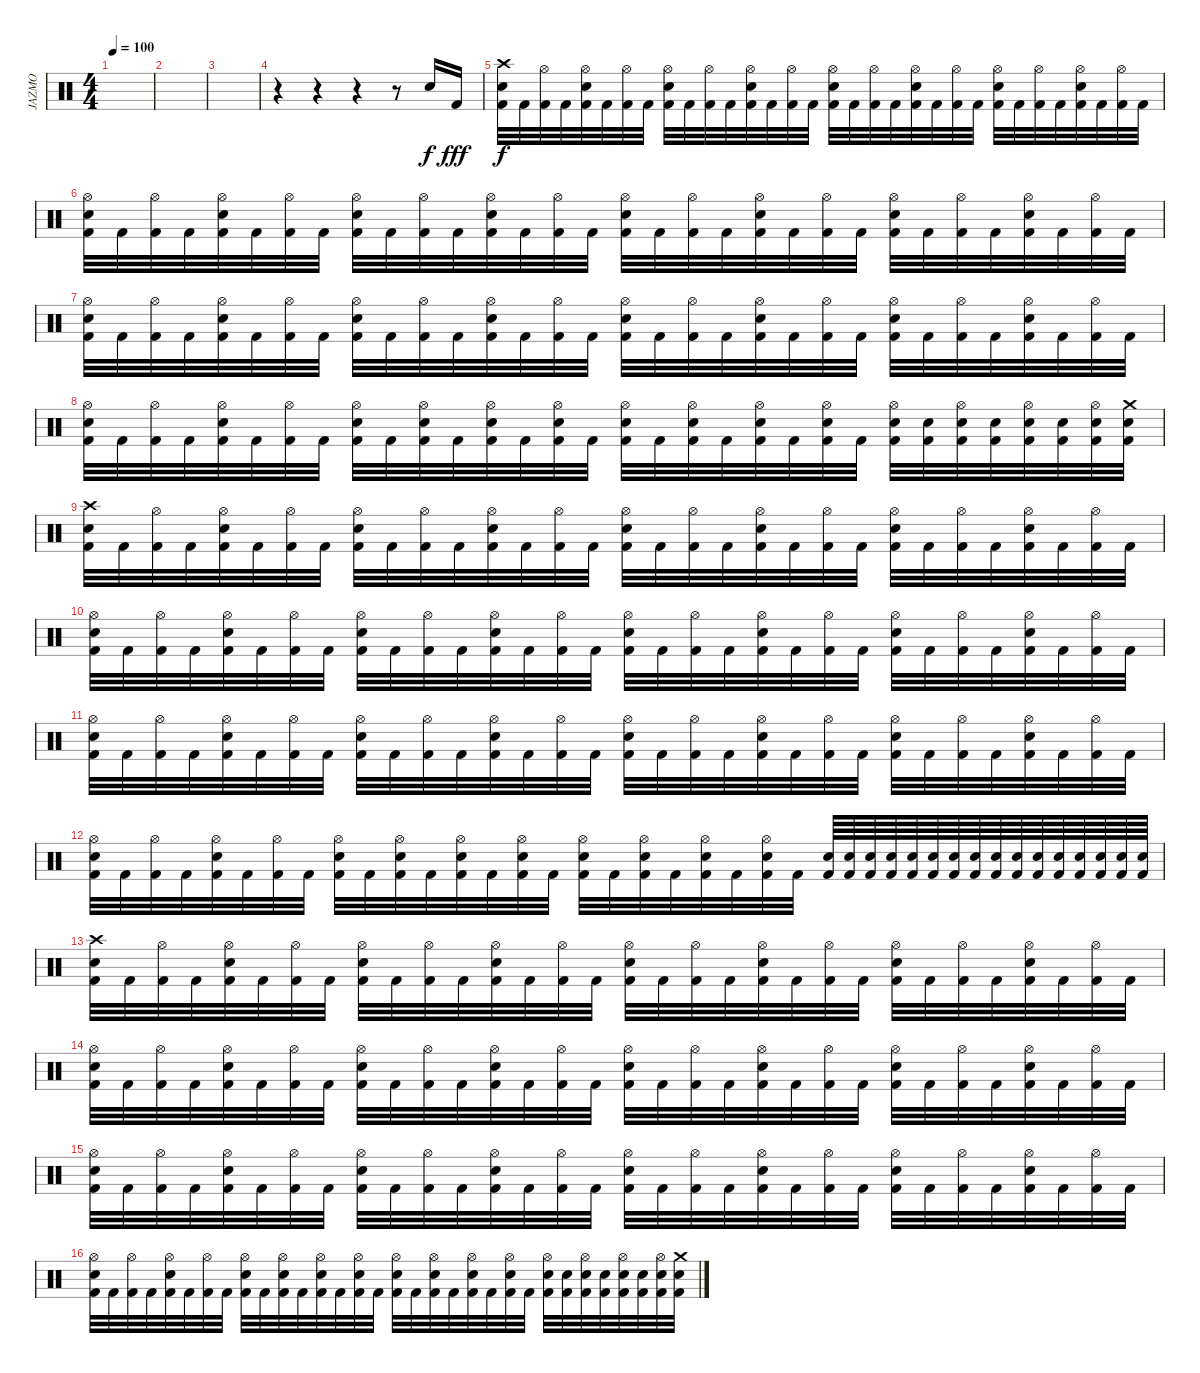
\track ("JAZMO" "JAZMO") {instrument percussion}
\staff {score}
\articulation defaults
\ts (4 4)
\tempo 100
\clef neutral
\ks c
|
|
|
r.4 r.4 r.4 r.8 "Electric Snare (hit)".16 "Kick (hit) 2".16{dy fff} |
("Crash high (hit)" "Electric Snare (hit)" "Kick (hit) 2").32{dy f} "Kick (hit) 2".32 ("Hi-Hat (open)" "Kick (hit) 2").32 "Kick (hit) 2".32 ("Hi-Hat (open)" "Electric Snare (hit)" "Kick (hit) 2").32 "Kick (hit) 2".32 ("Hi-Hat (open)" "Kick (hit) 2").32 "Kick (hit) 2".32 ("Hi-Hat (open)" "Electric Snare (hit)" "Kick (hit) 2").32 "Kick (hit) 2".32 ("Hi-Hat (open)" "Kick (hit) 2").32 "Kick (hit) 2".32 ("Hi-Hat (open)" "Electric Snare (hit)" "Kick (hit) 2").32 "Kick (hit) 2".32 ("Hi-Hat (open)" "Kick (hit) 2").32 "Kick (hit) 2".32 ("Hi-Hat (open)" "Electric Snare (hit)" "Kick (hit) 2").32 "Kick (hit) 2".32 ("Hi-Hat (open)" "Kick (hit) 2").32 "Kick (hit) 2".32 ("Hi-Hat (open)" "Electric Snare (hit)" "Kick (hit) 2").32 "Kick (hit) 2".32 ("Hi-Hat (open)" "Kick (hit) 2").32 "Kick (hit) 2".32 ("Hi-Hat (open)" "Electric Snare (hit)" "Kick (hit) 2").32 "Kick (hit) 2".32 ("Hi-Hat (open)" "Kick (hit) 2").32 "Kick (hit) 2".32 ("Hi-Hat (open)" "Electric Snare (hit)" "Kick (hit) 2").32 "Kick (hit) 2".32 ("Hi-Hat (open)" "Kick (hit) 2").32 "Kick (hit) 2".32 |
("Hi-Hat (open)" "Electric Snare (hit)" "Kick (hit) 2").32 "Kick (hit) 2".32 ("Hi-Hat (open)" "Kick (hit) 2").32 "Kick (hit) 2".32 ("Hi-Hat (open)" "Electric Snare (hit)" "Kick (hit) 2").32 "Kick (hit) 2".32 ("Hi-Hat (open)" "Kick (hit) 2").32 "Kick (hit) 2".32 ("Hi-Hat (open)" "Electric Snare (hit)" "Kick (hit) 2").32 "Kick (hit) 2".32 ("Hi-Hat (open)" "Kick (hit) 2").32 "Kick (hit) 2".32 ("Hi-Hat (open)" "Electric Snare (hit)" "Kick (hit) 2").32 "Kick (hit) 2".32 ("Hi-Hat (open)" "Kick (hit) 2").32 "Kick (hit) 2".32 ("Hi-Hat (open)" "Electric Snare (hit)" "Kick (hit) 2").32 "Kick (hit) 2".32 ("Hi-Hat (open)" "Kick (hit) 2").32 "Kick (hit) 2".32 ("Hi-Hat (open)" "Electric Snare (hit)" "Kick (hit) 2").32 "Kick (hit) 2".32 ("Hi-Hat (open)" "Kick (hit) 2").32 "Kick (hit) 2".32 ("Hi-Hat (open)" "Electric Snare (hit)" "Kick (hit) 2").32 "Kick (hit) 2".32 ("Hi-Hat (open)" "Kick (hit) 2").32 "Kick (hit) 2".32 ("Hi-Hat (open)" "Electric Snare (hit)" "Kick (hit) 2").32 "Kick (hit) 2".32 ("Hi-Hat (open)" "Kick (hit) 2").32 "Kick (hit) 2".32 |
("Hi-Hat (open)" "Electric Snare (hit)" "Kick (hit) 2").32 "Kick (hit) 2".32 ("Hi-Hat (open)" "Kick (hit) 2").32 "Kick (hit) 2".32 ("Hi-Hat (open)" "Electric Snare (hit)" "Kick (hit) 2").32 "Kick (hit) 2".32 ("Hi-Hat (open)" "Kick (hit) 2").32 "Kick (hit) 2".32 ("Hi-Hat (open)" "Electric Snare (hit)" "Kick (hit) 2").32 "Kick (hit) 2".32 ("Hi-Hat (open)" "Kick (hit) 2").32 "Kick (hit) 2".32 ("Hi-Hat (open)" "Electric Snare (hit)" "Kick (hit) 2").32 "Kick (hit) 2".32 ("Hi-Hat (open)" "Kick (hit) 2").32 "Kick (hit) 2".32 ("Hi-Hat (open)" "Electric Snare (hit)" "Kick (hit) 2").32 "Kick (hit) 2".32 ("Hi-Hat (open)" "Kick (hit) 2").32 "Kick (hit) 2".32 ("Hi-Hat (open)" "Electric Snare (hit)" "Kick (hit) 2").32 "Kick (hit) 2".32 ("Hi-Hat (open)" "Kick (hit) 2").32 "Kick (hit) 2".32 ("Hi-Hat (open)" "Electric Snare (hit)" "Kick (hit) 2").32 "Kick (hit) 2".32 ("Hi-Hat (open)" "Kick (hit) 2").32 "Kick (hit) 2".32 ("Hi-Hat (open)" "Electric Snare (hit)" "Kick (hit) 2").32 "Kick (hit) 2".32 ("Hi-Hat (open)" "Kick (hit) 2").32 "Kick (hit) 2".32 |
("Hi-Hat (open)" "Electric Snare (hit)" "Kick (hit) 2").32 "Kick (hit) 2".32 ("Hi-Hat (open)" "Kick (hit) 2").32 "Kick (hit) 2".32 ("Hi-Hat (open)" "Electric Snare (hit)" "Kick (hit) 2").32 "Kick (hit) 2".32 ("Hi-Hat (open)" "Kick (hit) 2").32 "Kick (hit) 2".32 ("Hi-Hat (open)" "Electric Snare (hit)" "Kick (hit) 2").32 "Kick (hit) 2".32 ("Hi-Hat (open)" "Electric Snare (hit)" "Kick (hit) 2").32 "Kick (hit) 2".32 ("Hi-Hat (open)" "Electric Snare (hit)" "Kick (hit) 2").32 "Kick (hit) 2".32 ("Hi-Hat (open)" "Electric Snare (hit)" "Kick (hit) 2").32 "Kick (hit) 2".32 ("Hi-Hat (open)" "Electric Snare (hit)" "Kick (hit) 2").32 "Kick (hit) 2".32 ("Hi-Hat (open)" "Electric Snare (hit)" "Kick (hit) 2").32 "Kick (hit) 2".32 ("Hi-Hat (open)" "Electric Snare (hit)" "Kick (hit) 2").32 "Kick (hit) 2".32 ("Hi-Hat (open)" "Electric Snare (hit)" "Kick (hit) 2").32 "Kick (hit) 2".32 ("Hi-Hat (open)" "Electric Snare (hit)" "Kick (hit) 2").32 ("Electric Snare (hit)" "Kick (hit) 2").32 ("Hi-Hat (open)" "Electric Snare (hit)" "Kick (hit) 2").32 ("Electric Snare (hit)" "Kick (hit) 2").32 ("Hi-Hat (open)" "Electric Snare (hit)" "Kick (hit) 2").32 ("Electric Snare (hit)" "Kick (hit) 2").32 ("Hi-Hat (open)" "Electric Snare (hit)" "Kick (hit) 2").32 ("Crash medium (hit)" "Electric Snare (hit)" "Kick (hit) 2").32 |
("Crash high (hit)" "Electric Snare (hit)" "Kick (hit) 2").32 "Kick (hit) 2".32 ("Hi-Hat (open)" "Kick (hit) 2").32 "Kick (hit) 2".32 ("Hi-Hat (open)" "Electric Snare (hit)" "Kick (hit) 2").32 "Kick (hit) 2".32 ("Hi-Hat (open)" "Kick (hit) 2").32 "Kick (hit) 2".32 ("Hi-Hat (open)" "Electric Snare (hit)" "Kick (hit) 2").32 "Kick (hit) 2".32 ("Hi-Hat (open)" "Kick (hit) 2").32 "Kick (hit) 2".32 ("Hi-Hat (open)" "Electric Snare (hit)" "Kick (hit) 2").32 "Kick (hit) 2".32 ("Hi-Hat (open)" "Kick (hit) 2").32 "Kick (hit) 2".32 ("Hi-Hat (open)" "Electric Snare (hit)" "Kick (hit) 2").32 "Kick (hit) 2".32 ("Hi-Hat (open)" "Kick (hit) 2").32 "Kick (hit) 2".32 ("Hi-Hat (open)" "Electric Snare (hit)" "Kick (hit) 2").32 "Kick (hit) 2".32 ("Hi-Hat (open)" "Kick (hit) 2").32 "Kick (hit) 2".32 ("Hi-Hat (open)" "Electric Snare (hit)" "Kick (hit) 2").32 "Kick (hit) 2".32 ("Hi-Hat (open)" "Kick (hit) 2").32 "Kick (hit) 2".32 ("Hi-Hat (open)" "Electric Snare (hit)" "Kick (hit) 2").32 "Kick (hit) 2".32 ("Hi-Hat (open)" "Kick (hit) 2").32 "Kick (hit) 2".32 |
("Hi-Hat (open)" "Electric Snare (hit)" "Kick (hit) 2").32 "Kick (hit) 2".32 ("Hi-Hat (open)" "Kick (hit) 2").32 "Kick (hit) 2".32 ("Hi-Hat (open)" "Electric Snare (hit)" "Kick (hit) 2").32 "Kick (hit) 2".32 ("Hi-Hat (open)" "Kick (hit) 2").32 "Kick (hit) 2".32 ("Hi-Hat (open)" "Electric Snare (hit)" "Kick (hit) 2").32 "Kick (hit) 2".32 ("Hi-Hat (open)" "Kick (hit) 2").32 "Kick (hit) 2".32 ("Hi-Hat (open)" "Electric Snare (hit)" "Kick (hit) 2").32 "Kick (hit) 2".32 ("Hi-Hat (open)" "Kick (hit) 2").32 "Kick (hit) 2".32 ("Hi-Hat (open)" "Electric Snare (hit)" "Kick (hit) 2").32 "Kick (hit) 2".32 ("Hi-Hat (open)" "Kick (hit) 2").32 "Kick (hit) 2".32 ("Hi-Hat (open)" "Electric Snare (hit)" "Kick (hit) 2").32 "Kick (hit) 2".32 ("Hi-Hat (open)" "Kick (hit) 2").32 "Kick (hit) 2".32 ("Hi-Hat (open)" "Electric Snare (hit)" "Kick (hit) 2").32 "Kick (hit) 2".32 ("Hi-Hat (open)" "Kick (hit) 2").32 "Kick (hit) 2".32 ("Hi-Hat (open)" "Electric Snare (hit)" "Kick (hit) 2").32 "Kick (hit) 2".32 ("Hi-Hat (open)" "Kick (hit) 2").32 "Kick (hit) 2".32 |
("Hi-Hat (open)" "Electric Snare (hit)" "Kick (hit) 2").32 "Kick (hit) 2".32 ("Hi-Hat (open)" "Kick (hit) 2").32 "Kick (hit) 2".32 ("Hi-Hat (open)" "Electric Snare (hit)" "Kick (hit) 2").32 "Kick (hit) 2".32 ("Hi-Hat (open)" "Kick (hit) 2").32 "Kick (hit) 2".32 ("Hi-Hat (open)" "Electric Snare (hit)" "Kick (hit) 2").32 "Kick (hit) 2".32 ("Hi-Hat (open)" "Kick (hit) 2").32 "Kick (hit) 2".32 ("Hi-Hat (open)" "Electric Snare (hit)" "Kick (hit) 2").32 "Kick (hit) 2".32 ("Hi-Hat (open)" "Kick (hit) 2").32 "Kick (hit) 2".32 ("Hi-Hat (open)" "Electric Snare (hit)" "Kick (hit) 2").32 "Kick (hit) 2".32 ("Hi-Hat (open)" "Kick (hit) 2").32 "Kick (hit) 2".32 ("Hi-Hat (open)" "Electric Snare (hit)" "Kick (hit) 2").32 "Kick (hit) 2".32 ("Hi-Hat (open)" "Kick (hit) 2").32 "Kick (hit) 2".32 ("Hi-Hat (open)" "Electric Snare (hit)" "Kick (hit) 2").32 "Kick (hit) 2".32 ("Hi-Hat (open)" "Kick (hit) 2").32 "Kick (hit) 2".32 ("Hi-Hat (open)" "Electric Snare (hit)" "Kick (hit) 2").32 "Kick (hit) 2".32 ("Hi-Hat (open)" "Kick (hit) 2").32 "Kick (hit) 2".32 |
("Hi-Hat (open)" "Electric Snare (hit)" "Kick (hit) 2").32 "Kick (hit) 2".32 ("Hi-Hat (open)" "Kick (hit) 2").32 "Kick (hit) 2".32 ("Hi-Hat (open)" "Electric Snare (hit)" "Kick (hit) 2").32 "Kick (hit) 2".32 ("Hi-Hat (open)" "Kick (hit) 2").32 "Kick (hit) 2".32 ("Hi-Hat (open)" "Electric Snare (hit)" "Kick (hit) 2").32 "Kick (hit) 2".32 ("Hi-Hat (open)" "Electric Snare (hit)" "Kick (hit) 2").32 "Kick (hit) 2".32 ("Hi-Hat (open)" "Electric Snare (hit)" "Kick (hit) 2").32 "Kick (hit) 2".32 ("Hi-Hat (open)" "Electric Snare (hit)" "Kick (hit) 2").32 "Kick (hit) 2".32 ("Hi-Hat (open)" "Electric Snare (hit)" "Kick (hit) 2").32 "Kick (hit) 2".32 ("Hi-Hat (open)" "Electric Snare (hit)" "Kick (hit) 2").32 "Kick (hit) 2".32 ("Hi-Hat (open)" "Electric Snare (hit)" "Kick (hit) 2").32 "Kick (hit) 2".32 ("Hi-Hat (open)" "Electric Snare (hit)" "Kick (hit) 2").32 "Kick (hit) 2".32 ("Electric Snare (hit)" "Kick (hit) 2").64 ("Electric Snare (hit)" "Kick (hit) 2").64 ("Electric Snare (hit)" "Kick (hit) 2").64 ("Electric Snare (hit)" "Kick (hit) 2").64 ("Electric Snare (hit)" "Kick (hit) 2").64 ("Electric Snare (hit)" "Kick (hit) 2").64 ("Electric Snare (hit)" "Kick (hit) 2").64 ("Electric Snare (hit)" "Kick (hit) 2").64 ("Electric Snare (hit)" "Kick (hit) 2").64 ("Electric Snare (hit)" "Kick (hit) 2").64 ("Electric Snare (hit)" "Kick (hit) 2").64 ("Electric Snare (hit)" "Kick (hit) 2").64 ("Electric Snare (hit)" "Kick (hit) 2").64 ("Electric Snare (hit)" "Kick (hit) 2").64 ("Electric Snare (hit)" "Kick (hit) 2").64 ("Electric Snare (hit)" "Kick (hit) 2").64 |
("Crash high (hit)" "Electric Snare (hit)" "Kick (hit) 2").32 "Kick (hit) 2".32 ("Hi-Hat (open)" "Kick (hit) 2").32 "Kick (hit) 2".32 ("Hi-Hat (open)" "Electric Snare (hit)" "Kick (hit) 2").32 "Kick (hit) 2".32 ("Hi-Hat (open)" "Kick (hit) 2").32 "Kick (hit) 2".32 ("Hi-Hat (open)" "Electric Snare (hit)" "Kick (hit) 2").32 "Kick (hit) 2".32 ("Hi-Hat (open)" "Kick (hit) 2").32 "Kick (hit) 2".32 ("Hi-Hat (open)" "Electric Snare (hit)" "Kick (hit) 2").32 "Kick (hit) 2".32 ("Hi-Hat (open)" "Kick (hit) 2").32 "Kick (hit) 2".32 ("Hi-Hat (open)" "Electric Snare (hit)" "Kick (hit) 2").32 "Kick (hit) 2".32 ("Hi-Hat (open)" "Kick (hit) 2").32 "Kick (hit) 2".32 ("Hi-Hat (open)" "Electric Snare (hit)" "Kick (hit) 2").32 "Kick (hit) 2".32 ("Hi-Hat (open)" "Kick (hit) 2").32 "Kick (hit) 2".32 ("Hi-Hat (open)" "Electric Snare (hit)" "Kick (hit) 2").32 "Kick (hit) 2".32 ("Hi-Hat (open)" "Kick (hit) 2").32 "Kick (hit) 2".32 ("Hi-Hat (open)" "Electric Snare (hit)" "Kick (hit) 2").32 "Kick (hit) 2".32 ("Hi-Hat (open)" "Kick (hit) 2").32 "Kick (hit) 2".32 |
("Hi-Hat (open)" "Electric Snare (hit)" "Kick (hit) 2").32 "Kick (hit) 2".32 ("Hi-Hat (open)" "Kick (hit) 2").32 "Kick (hit) 2".32 ("Hi-Hat (open)" "Electric Snare (hit)" "Kick (hit) 2").32 "Kick (hit) 2".32 ("Hi-Hat (open)" "Kick (hit) 2").32 "Kick (hit) 2".32 ("Hi-Hat (open)" "Electric Snare (hit)" "Kick (hit) 2").32 "Kick (hit) 2".32 ("Hi-Hat (open)" "Kick (hit) 2").32 "Kick (hit) 2".32 ("Hi-Hat (open)" "Electric Snare (hit)" "Kick (hit) 2").32 "Kick (hit) 2".32 ("Hi-Hat (open)" "Kick (hit) 2").32 "Kick (hit) 2".32 ("Hi-Hat (open)" "Electric Snare (hit)" "Kick (hit) 2").32 "Kick (hit) 2".32 ("Hi-Hat (open)" "Kick (hit) 2").32 "Kick (hit) 2".32 ("Hi-Hat (open)" "Electric Snare (hit)" "Kick (hit) 2").32 "Kick (hit) 2".32 ("Hi-Hat (open)" "Kick (hit) 2").32 "Kick (hit) 2".32 ("Hi-Hat (open)" "Electric Snare (hit)" "Kick (hit) 2").32 "Kick (hit) 2".32 ("Hi-Hat (open)" "Kick (hit) 2").32 "Kick (hit) 2".32 ("Hi-Hat (open)" "Electric Snare (hit)" "Kick (hit) 2").32 "Kick (hit) 2".32 ("Hi-Hat (open)" "Kick (hit) 2").32 "Kick (hit) 2".32 |
("Hi-Hat (open)" "Electric Snare (hit)" "Kick (hit) 2").32 "Kick (hit) 2".32 ("Hi-Hat (open)" "Kick (hit) 2").32 "Kick (hit) 2".32 ("Hi-Hat (open)" "Electric Snare (hit)" "Kick (hit) 2").32 "Kick (hit) 2".32 ("Hi-Hat (open)" "Kick (hit) 2").32 "Kick (hit) 2".32 ("Hi-Hat (open)" "Electric Snare (hit)" "Kick (hit) 2").32 "Kick (hit) 2".32 ("Hi-Hat (open)" "Kick (hit) 2").32 "Kick (hit) 2".32 ("Hi-Hat (open)" "Electric Snare (hit)" "Kick (hit) 2").32 "Kick (hit) 2".32 ("Hi-Hat (open)" "Kick (hit) 2").32 "Kick (hit) 2".32 ("Hi-Hat (open)" "Electric Snare (hit)" "Kick (hit) 2").32 "Kick (hit) 2".32 ("Hi-Hat (open)" "Kick (hit) 2").32 "Kick (hit) 2".32 ("Hi-Hat (open)" "Electric Snare (hit)" "Kick (hit) 2").32 "Kick (hit) 2".32 ("Hi-Hat (open)" "Kick (hit) 2").32 "Kick (hit) 2".32 ("Hi-Hat (open)" "Electric Snare (hit)" "Kick (hit) 2").32 "Kick (hit) 2".32 ("Hi-Hat (open)" "Kick (hit) 2").32 "Kick (hit) 2".32 ("Hi-Hat (open)" "Electric Snare (hit)" "Kick (hit) 2").32 "Kick (hit) 2".32 ("Hi-Hat (open)" "Kick (hit) 2").32 "Kick (hit) 2".32 |
("Hi-Hat (open)" "Electric Snare (hit)" "Kick (hit) 2").32 "Kick (hit) 2".32 ("Hi-Hat (open)" "Kick (hit) 2").32 "Kick (hit) 2".32 ("Hi-Hat (open)" "Electric Snare (hit)" "Kick (hit) 2").32 "Kick (hit) 2".32 ("Hi-Hat (open)" "Kick (hit) 2").32 "Kick (hit) 2".32 ("Hi-Hat (open)" "Electric Snare (hit)" "Kick (hit) 2").32 "Kick (hit) 2".32 ("Hi-Hat (open)" "Electric Snare (hit)" "Kick (hit) 2").32 "Kick (hit) 2".32 ("Hi-Hat (open)" "Electric Snare (hit)" "Kick (hit) 2").32 "Kick (hit) 2".32 ("Hi-Hat (open)" "Electric Snare (hit)" "Kick (hit) 2").32 "Kick (hit) 2".32 ("Hi-Hat (open)" "Electric Snare (hit)" "Kick (hit) 2").32 "Kick (hit) 2".32 ("Hi-Hat (open)" "Electric Snare (hit)" "Kick (hit) 2").32 "Kick (hit) 2".32 ("Hi-Hat (open)" "Electric Snare (hit)" "Kick (hit) 2").32 "Kick (hit) 2".32 ("Hi-Hat (open)" "Electric Snare (hit)" "Kick (hit) 2").32 "Kick (hit) 2".32 ("Hi-Hat (open)" "Electric Snare (hit)" "Kick (hit) 2").32 ("Electric Snare (hit)" "Kick (hit) 2").32 ("Hi-Hat (open)" "Electric Snare (hit)" "Kick (hit) 2").32 ("Electric Snare (hit)" "Kick (hit) 2").32 ("Hi-Hat (open)" "Electric Snare (hit)" "Kick (hit) 2").32 ("Electric Snare (hit)" "Kick (hit) 2").32 ("Hi-Hat (open)" "Electric Snare (hit)" "Kick (hit) 2").32 ("Crash medium (hit)" "Electric Snare (hit)" "Kick (hit) 2").32
